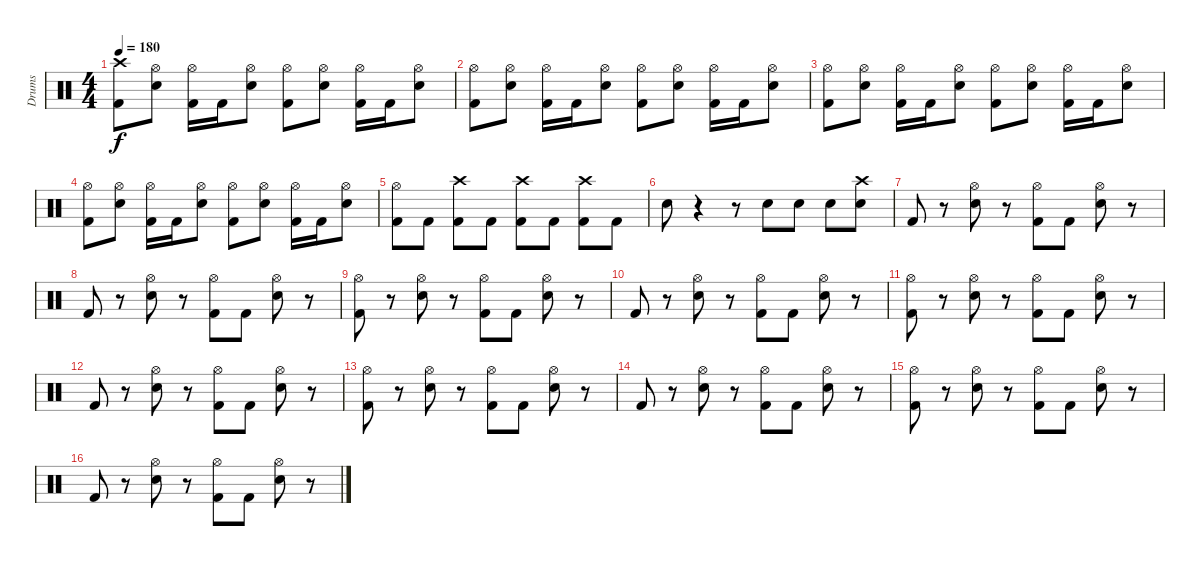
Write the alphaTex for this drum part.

\track ("Drums" "Drums") {instrument percussion}
\staff {score}
\articulation defaults
\ts (4 4)
\tempo 180
\clef neutral
\ks c
("Kick (hit) 2" "Crash high (hit)").8{dy f} ("Snare (hit) 2" "Hi-Hat (open)").8 ("Kick (hit) 2" "Hi-Hat (open)").16 "Kick (hit) 2".16 ("Snare (hit) 2" "Hi-Hat (open)").8 ("Kick (hit) 2" "Hi-Hat (open)").8 ("Snare (hit) 2" "Hi-Hat (open)").8 ("Kick (hit) 2" "Hi-Hat (open)").16 "Kick (hit) 2".16 ("Snare (hit) 2" "Hi-Hat (open)").8 |
("Kick (hit) 2" "Hi-Hat (open)").8 ("Snare (hit) 2" "Hi-Hat (open)").8 ("Kick (hit) 2" "Hi-Hat (open)").16 "Kick (hit) 2".16 ("Snare (hit) 2" "Hi-Hat (open)").8 ("Kick (hit) 2" "Hi-Hat (open)").8 ("Snare (hit) 2" "Hi-Hat (open)").8 ("Kick (hit) 2" "Hi-Hat (open)").16 "Kick (hit) 2".16 ("Snare (hit) 2" "Hi-Hat (open)").8 |
("Kick (hit) 2" "Hi-Hat (open)").8 ("Snare (hit) 2" "Hi-Hat (open)").8 ("Kick (hit) 2" "Hi-Hat (open)").16 "Kick (hit) 2".16 ("Snare (hit) 2" "Hi-Hat (open)").8 ("Kick (hit) 2" "Hi-Hat (open)").8 ("Snare (hit) 2" "Hi-Hat (open)").8 ("Kick (hit) 2" "Hi-Hat (open)").16 "Kick (hit) 2".16 ("Snare (hit) 2" "Hi-Hat (open)").8 |
("Kick (hit) 2" "Hi-Hat (open)").8 ("Snare (hit) 2" "Hi-Hat (open)").8 ("Kick (hit) 2" "Hi-Hat (open)").16 "Kick (hit) 2".16 ("Snare (hit) 2" "Hi-Hat (open)").8 ("Kick (hit) 2" "Hi-Hat (open)").8 ("Snare (hit) 2" "Hi-Hat (open)").8 ("Kick (hit) 2" "Hi-Hat (open)").16 "Kick (hit) 2".16 ("Snare (hit) 2" "Hi-Hat (open)").8 |
("Hi-Hat (open)" "Kick (hit) 2").8 "Kick (hit) 2".8 ("Crash high (hit)" "Kick (hit) 2").8 "Kick (hit) 2".8 ("Crash high (hit)" "Kick (hit) 2").8 "Kick (hit) 2".8 ("Crash high (hit)" "Kick (hit) 2").8 "Kick (hit) 2".8 |
"Electric Snare (hit)".8 r.4 r.8 "Electric Snare (hit)".8 "Electric Snare (hit)".8 "Electric Snare (hit)".8 ("Crash high (hit)" "Electric Snare (hit)").8 |
"Kick (hit) 2".8 r.8 ("Hi-Hat (open)" "Electric Snare (hit)").8 r.8 ("Hi-Hat (open)" "Kick (hit) 2").8 "Kick (hit) 2".8 ("Hi-Hat (open)" "Electric Snare (hit)").8 r.8 |
"Kick (hit) 2".8 r.8 ("Hi-Hat (open)" "Electric Snare (hit)").8 r.8 ("Hi-Hat (open)" "Kick (hit) 2").8 "Kick (hit) 2".8 ("Hi-Hat (open)" "Electric Snare (hit)").8 r.8 |
("Hi-Hat (open)" "Kick (hit) 2").8 r.8 ("Hi-Hat (open)" "Electric Snare (hit)").8 r.8 ("Hi-Hat (open)" "Kick (hit) 2").8 "Kick (hit) 2".8 ("Hi-Hat (open)" "Electric Snare (hit)").8 r.8 |
"Kick (hit) 2".8 r.8 ("Hi-Hat (open)" "Electric Snare (hit)").8 r.8 ("Hi-Hat (open)" "Kick (hit) 2").8 "Kick (hit) 2".8 ("Hi-Hat (open)" "Electric Snare (hit)").8 r.8 |
("Hi-Hat (open)" "Kick (hit) 2").8 r.8 ("Hi-Hat (open)" "Electric Snare (hit)").8 r.8 ("Hi-Hat (open)" "Kick (hit) 2").8 "Kick (hit) 2".8 ("Hi-Hat (open)" "Electric Snare (hit)").8 r.8 |
"Kick (hit) 2".8 r.8 ("Hi-Hat (open)" "Electric Snare (hit)").8 r.8 ("Hi-Hat (open)" "Kick (hit) 2").8 "Kick (hit) 2".8 ("Hi-Hat (open)" "Electric Snare (hit)").8 r.8 |
("Hi-Hat (open)" "Kick (hit) 2").8 r.8 ("Hi-Hat (open)" "Electric Snare (hit)").8 r.8 ("Hi-Hat (open)" "Kick (hit) 2").8 "Kick (hit) 2".8 ("Hi-Hat (open)" "Electric Snare (hit)").8 r.8 |
"Kick (hit) 2".8 r.8 ("Hi-Hat (open)" "Electric Snare (hit)").8 r.8 ("Hi-Hat (open)" "Kick (hit) 2").8 "Kick (hit) 2".8 ("Hi-Hat (open)" "Electric Snare (hit)").8 r.8 |
("Hi-Hat (open)" "Kick (hit) 2").8 r.8 ("Hi-Hat (open)" "Electric Snare (hit)").8 r.8 ("Hi-Hat (open)" "Kick (hit) 2").8 "Kick (hit) 2".8 ("Hi-Hat (open)" "Electric Snare (hit)").8 r.8 |
"Kick (hit) 2".8 r.8 ("Hi-Hat (open)" "Electric Snare (hit)").8 r.8 ("Hi-Hat (open)" "Kick (hit) 2").8 "Kick (hit) 2".8 ("Hi-Hat (open)" "Electric Snare (hit)").8 r.8
